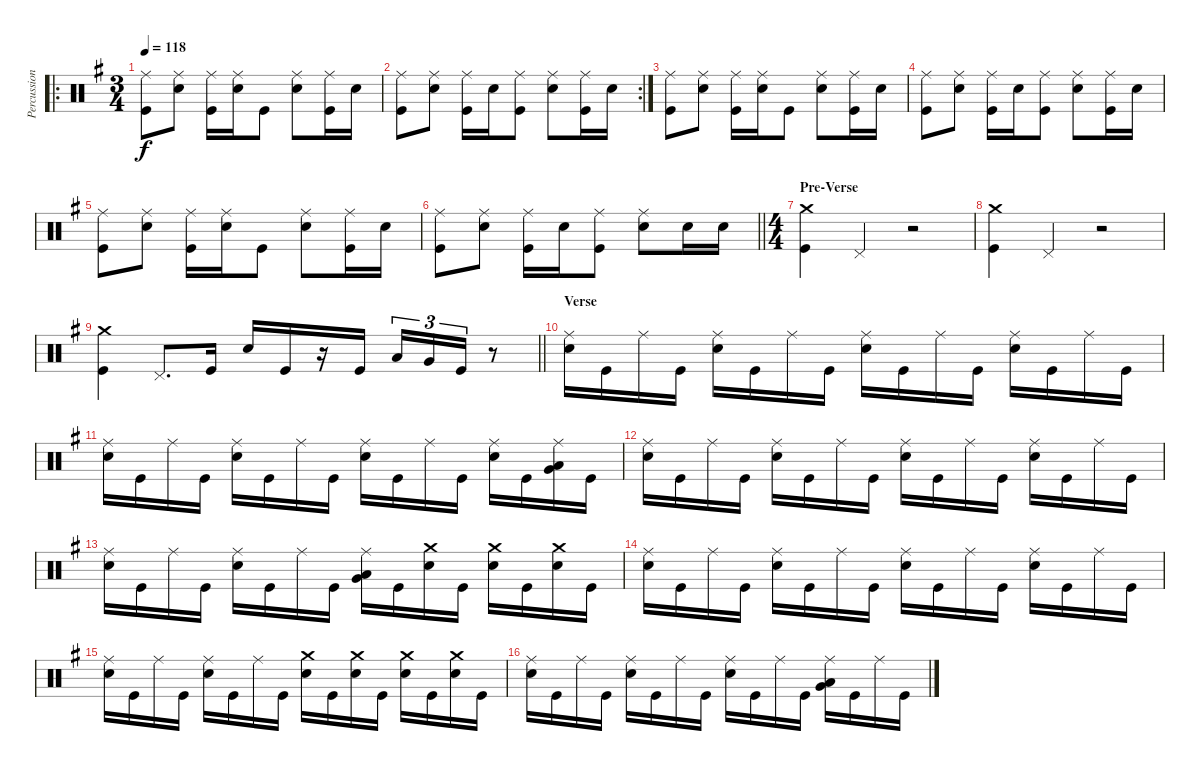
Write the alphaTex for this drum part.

\track ("Percussion" "Percussion") {instrument percussion}
\staff {score}
\articulation defaults
\ro
\ts (3 4)
\tempo 118
\clef neutral
\ks g
("Ride (middle)" "Kick (hit)").8{dy f} ("Ride (middle)" "Electric Snare (hit)").8 ("Ride (middle)" "Kick (hit)").16 ("Ride (middle)" "Electric Snare (hit)").16 "Kick (hit)".8 ("Ride (middle)" "Electric Snare (hit)").8 ("Ride (middle)" "Kick (hit)").16 "Electric Snare (hit)".16 |
\rc 2
("Ride (middle)" "Kick (hit)").8 ("Ride (middle)" "Electric Snare (hit)").8 ("Ride (middle)" "Kick (hit)").16 "Electric Snare (hit)".16 ("Ride (middle)" "Kick (hit)").8 ("Ride (middle)" "Electric Snare (hit)").8 ("Ride (middle)" "Kick (hit)").16 "Electric Snare (hit)".16 |
("Ride (middle)" "Kick (hit)").8 ("Ride (middle)" "Electric Snare (hit)").8 ("Ride (middle)" "Kick (hit)").16 ("Ride (middle)" "Electric Snare (hit)").16 "Kick (hit)".8 ("Ride (middle)" "Electric Snare (hit)").8 ("Ride (middle)" "Kick (hit)").16 "Electric Snare (hit)".16 |
("Ride (middle)" "Kick (hit)").8 ("Ride (middle)" "Electric Snare (hit)").8 ("Ride (middle)" "Kick (hit)").16 "Electric Snare (hit)".16 ("Ride (middle)" "Kick (hit)").8 ("Ride (middle)" "Electric Snare (hit)").8 ("Ride (middle)" "Kick (hit)").16 "Electric Snare (hit)".16 |
("Ride (middle)" "Kick (hit)").8 ("Ride (middle)" "Electric Snare (hit)").8 ("Ride (middle)" "Kick (hit)").16 ("Ride (middle)" "Electric Snare (hit)").16 "Kick (hit)".8 ("Ride (middle)" "Electric Snare (hit)").8 ("Ride (middle)" "Kick (hit)").16 "Electric Snare (hit)".16 |
\barLineRight lightlight
("Ride (middle)" "Kick (hit)").8 ("Ride (middle)" "Electric Snare (hit)").8 ("Ride (middle)" "Kick (hit)").16 "Electric Snare (hit)".16 ("Ride (middle)" "Kick (hit)").8 ("Ride (middle)" "Electric Snare (hit)").8 "Electric Snare (hit)".16 "Electric Snare (hit)".16 |
\ts (4 4)
\section ("" "Pre-Verse")
("Crash medium (hit)" "Kick (hit)").4 "Pedal Hi-Hat (hit)".4 r.2 |
("Crash medium (hit)" "Kick (hit)").4 "Pedal Hi-Hat (hit)".4 r.2 |
\barLineRight lightlight
("Crash medium (hit)" "Kick (hit)").4 "Pedal Hi-Hat (hit)".8{d} "Kick (hit)".16 "Electric Snare (hit)".16 "Kick (hit)".16 r.16 "Kick (hit)".16 "Low Tom (hit)".16{tu (3 2)} "Very Low Tom (hit)".16{tu (3 2)} "Kick (hit)".16{tu (3 2)} r.8 |
\section ("" "Verse")
("Ride (middle)" "Electric Snare (hit)").16 "Kick (hit)".16 "Ride (middle)".16 "Kick (hit)".16 ("Ride (middle)" "Electric Snare (hit)").16 "Kick (hit)".16 "Ride (middle)".16 "Kick (hit)".16 ("Ride (middle)" "Electric Snare (hit)").16 "Kick (hit)".16 "Ride (middle)".16 "Kick (hit)".16 ("Ride (middle)" "Electric Snare (hit)").16 "Kick (hit)".16 "Ride (middle)".16 "Kick (hit)".16 |
("Ride (middle)" "Electric Snare (hit)").16 "Kick (hit)".16 "Ride (middle)".16 "Kick (hit)".16 ("Ride (middle)" "Electric Snare (hit)").16 "Kick (hit)".16 "Ride (middle)".16 "Kick (hit)".16 ("Ride (middle)" "Electric Snare (hit)").16 "Kick (hit)".16 "Ride (middle)".16 "Kick (hit)".16 ("Ride (middle)" "Electric Snare (hit)").16 "Kick (hit)".16 ("Ride (middle)" "Very Low Tom (hit)" "Low Floor Tom (hit)").16 "Kick (hit)".16 |
("Ride (middle)" "Electric Snare (hit)").16 "Kick (hit)".16 "Ride (middle)".16 "Kick (hit)".16 ("Ride (middle)" "Electric Snare (hit)").16 "Kick (hit)".16 "Ride (middle)".16 "Kick (hit)".16 ("Ride (middle)" "Electric Snare (hit)").16 "Kick (hit)".16 "Ride (middle)".16 "Kick (hit)".16 ("Ride (middle)" "Electric Snare (hit)").16 "Kick (hit)".16 "Ride (middle)".16 "Kick (hit)".16 |
("Ride (middle)" "Electric Snare (hit)").16 "Kick (hit)".16 "Ride (middle)".16 "Kick (hit)".16 ("Ride (middle)" "Electric Snare (hit)").16 "Kick (hit)".16 "Ride (middle)".16 "Kick (hit)".16 ("Ride (middle)" "Very Low Tom (hit)" "Low Floor Tom (hit)").16 "Kick (hit)".16 ("Crash medium (hit)" "Electric Snare (hit)").16 "Kick (hit)".16 ("Crash medium (hit)" "Electric Snare (hit)").16 "Kick (hit)".16 ("Crash medium (hit)" "Electric Snare (hit)").16 "Kick (hit)".16 |
("Ride (middle)" "Electric Snare (hit)").16 "Kick (hit)".16 "Ride (middle)".16 "Kick (hit)".16 ("Ride (middle)" "Electric Snare (hit)").16 "Kick (hit)".16 "Ride (middle)".16 "Kick (hit)".16 ("Ride (middle)" "Electric Snare (hit)").16 "Kick (hit)".16 "Ride (middle)".16 "Kick (hit)".16 ("Ride (middle)" "Electric Snare (hit)").16 "Kick (hit)".16 "Ride (middle)".16 "Kick (hit)".16 |
("Ride (middle)" "Electric Snare (hit)").16 "Kick (hit)".16 "Ride (middle)".16 "Kick (hit)".16 ("Ride (middle)" "Electric Snare (hit)").16 "Kick (hit)".16 "Ride (middle)".16 "Kick (hit)".16 ("Crash medium (hit)" "Electric Snare (hit)").16 "Kick (hit)".16 ("Crash medium (hit)" "Electric Snare (hit)").16 "Kick (hit)".16 ("Crash medium (hit)" "Electric Snare (hit)").16 "Kick (hit)".16 ("Crash medium (hit)" "Electric Snare (hit)").16 "Kick (hit)".16 |
("Ride (middle)" "Electric Snare (hit)").16 "Kick (hit)".16 "Ride (middle)".16 "Kick (hit)".16 ("Ride (middle)" "Electric Snare (hit)").16 "Kick (hit)".16 "Ride (middle)".16 "Kick (hit)".16 ("Ride (middle)" "Electric Snare (hit)").16 "Kick (hit)".16 "Ride (middle)".16 "Kick (hit)".16 ("Ride (middle)" "Very Low Tom (hit)" "Low Floor Tom (hit)").16 "Kick (hit)".16 "Ride (middle)".16 "Kick (hit)".16
